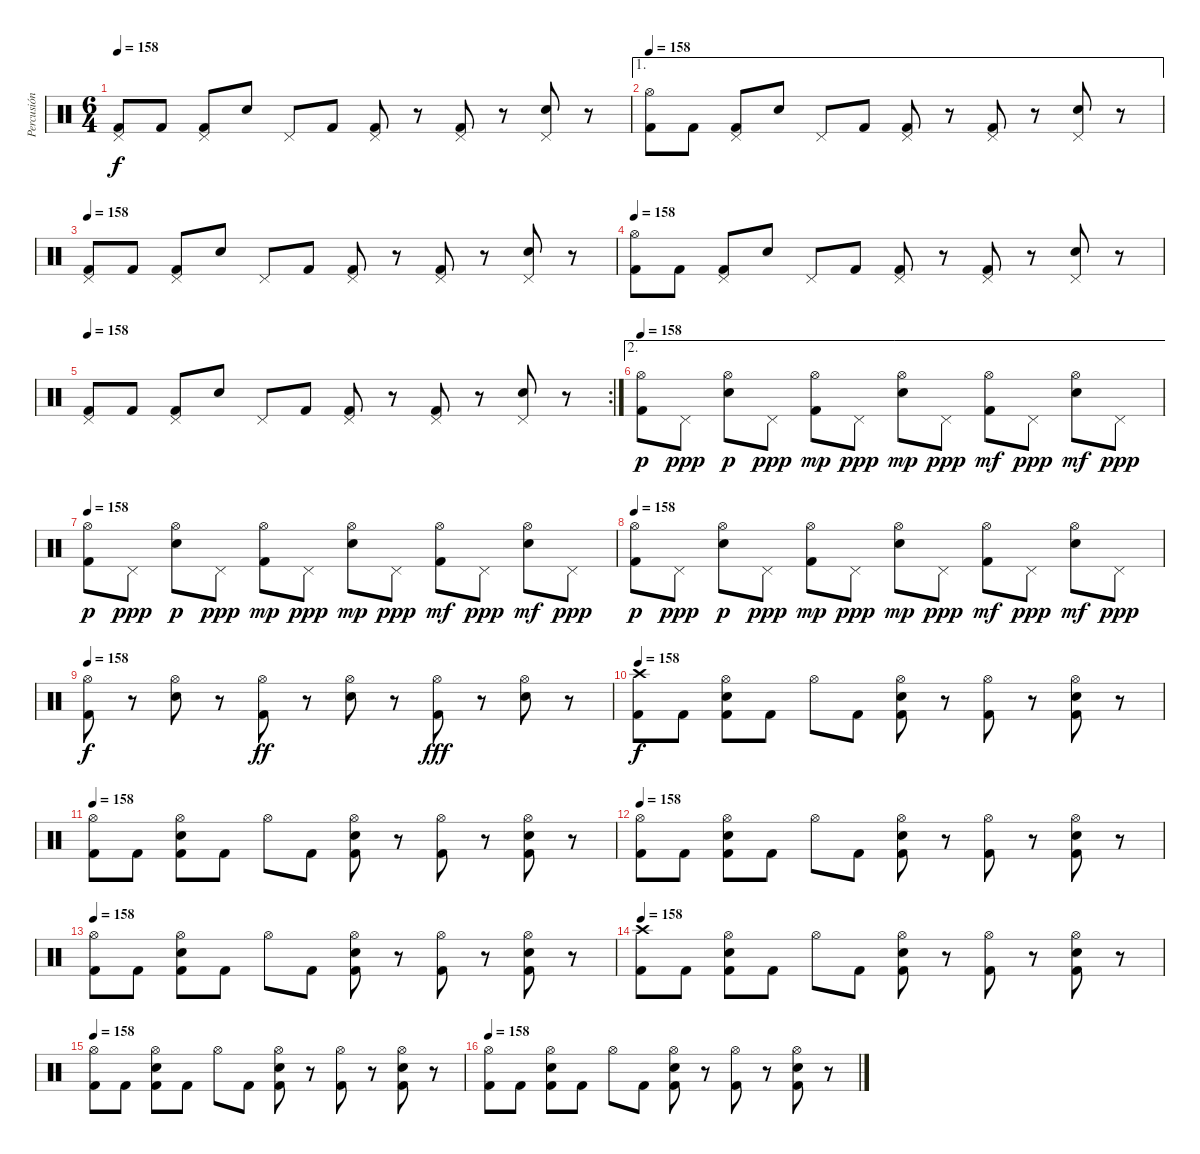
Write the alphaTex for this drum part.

\track ("Percusión" "Percusión") {instrument percussion}
\staff {score}
\articulation defaults
\ts (6 4)
\tempo 158
\clef neutral
\ks c
("Pedal Hi-Hat (hit)" "Kick (hit) 2").8{dy f} "Kick (hit) 2".8 ("Pedal Hi-Hat (hit)" "Kick (hit) 2").8 "Electric Snare (hit)".8 "Pedal Hi-Hat (hit)".8 "Kick (hit) 2".8 ("Pedal Hi-Hat (hit)" "Kick (hit) 2").8 r.8 ("Pedal Hi-Hat (hit)" "Kick (hit) 2").8 r.8 ("Pedal Hi-Hat (hit)" "Electric Snare (hit)").8 r.8 |
\ae 1
\tempo 158
("Hi-Hat (open)" "Kick (hit) 2").8 "Kick (hit) 2".8 ("Pedal Hi-Hat (hit)" "Kick (hit) 2").8 "Electric Snare (hit)".8 "Pedal Hi-Hat (hit)".8 "Kick (hit) 2".8 ("Pedal Hi-Hat (hit)" "Kick (hit) 2").8 r.8 ("Pedal Hi-Hat (hit)" "Kick (hit) 2").8 r.8 ("Pedal Hi-Hat (hit)" "Electric Snare (hit)").8 r.8 |
\tempo 158
("Pedal Hi-Hat (hit)" "Kick (hit) 2").8 "Kick (hit) 2".8 ("Pedal Hi-Hat (hit)" "Kick (hit) 2").8 "Electric Snare (hit)".8 "Pedal Hi-Hat (hit)".8 "Kick (hit) 2".8 ("Pedal Hi-Hat (hit)" "Kick (hit) 2").8 r.8 ("Pedal Hi-Hat (hit)" "Kick (hit) 2").8 r.8 ("Pedal Hi-Hat (hit)" "Electric Snare (hit)").8 r.8 |
\tempo 158
("Hi-Hat (open)" "Kick (hit) 2").8 "Kick (hit) 2".8 ("Pedal Hi-Hat (hit)" "Kick (hit) 2").8 "Electric Snare (hit)".8 "Pedal Hi-Hat (hit)".8 "Kick (hit) 2".8 ("Pedal Hi-Hat (hit)" "Kick (hit) 2").8 r.8 ("Pedal Hi-Hat (hit)" "Kick (hit) 2").8 r.8 ("Pedal Hi-Hat (hit)" "Electric Snare (hit)").8 r.8 |
\rc 2
\tempo 158
("Pedal Hi-Hat (hit)" "Kick (hit) 2").8 "Kick (hit) 2".8 ("Pedal Hi-Hat (hit)" "Kick (hit) 2").8 "Electric Snare (hit)".8 "Pedal Hi-Hat (hit)".8 "Kick (hit) 2".8 ("Pedal Hi-Hat (hit)" "Kick (hit) 2").8 r.8 ("Pedal Hi-Hat (hit)" "Kick (hit) 2").8 r.8 ("Pedal Hi-Hat (hit)" "Electric Snare (hit)").8 r.8 |
\ae 2
\tempo 158
("Hi-Hat (open)" "Kick (hit) 2").8{dy p} "Pedal Hi-Hat (hit)".8{dy ppp} ("Hi-Hat (open)" "Electric Snare (hit)").8{dy p} "Pedal Hi-Hat (hit)".8{dy ppp} ("Hi-Hat (open)" "Kick (hit) 2").8{dy mp} "Pedal Hi-Hat (hit)".8{dy ppp} ("Hi-Hat (open)" "Electric Snare (hit)").8{dy mp} "Pedal Hi-Hat (hit)".8{dy ppp} ("Hi-Hat (open)" "Kick (hit) 2").8{dy mf} "Pedal Hi-Hat (hit)".8{dy ppp} ("Hi-Hat (open)" "Electric Snare (hit)").8{dy mf} "Pedal Hi-Hat (hit)".8{dy ppp} |
\tempo 158
("Hi-Hat (open)" "Kick (hit) 2").8{dy p} "Pedal Hi-Hat (hit)".8{dy ppp} ("Hi-Hat (open)" "Electric Snare (hit)").8{dy p} "Pedal Hi-Hat (hit)".8{dy ppp} ("Hi-Hat (open)" "Kick (hit) 2").8{dy mp} "Pedal Hi-Hat (hit)".8{dy ppp} ("Hi-Hat (open)" "Electric Snare (hit)").8{dy mp} "Pedal Hi-Hat (hit)".8{dy ppp} ("Hi-Hat (open)" "Kick (hit) 2").8{dy mf} "Pedal Hi-Hat (hit)".8{dy ppp} ("Hi-Hat (open)" "Electric Snare (hit)").8{dy mf} "Pedal Hi-Hat (hit)".8{dy ppp} |
\tempo 158
("Hi-Hat (open)" "Kick (hit) 2").8{dy p} "Pedal Hi-Hat (hit)".8{dy ppp} ("Hi-Hat (open)" "Electric Snare (hit)").8{dy p} "Pedal Hi-Hat (hit)".8{dy ppp} ("Hi-Hat (open)" "Kick (hit) 2").8{dy mp} "Pedal Hi-Hat (hit)".8{dy ppp} ("Hi-Hat (open)" "Electric Snare (hit)").8{dy mp} "Pedal Hi-Hat (hit)".8{dy ppp} ("Hi-Hat (open)" "Kick (hit) 2").8{dy mf} "Pedal Hi-Hat (hit)".8{dy ppp} ("Hi-Hat (open)" "Electric Snare (hit)").8{dy mf} "Pedal Hi-Hat (hit)".8{dy ppp} |
\tempo 158
("Hi-Hat (open)" "Kick (hit) 2").8{dy f} r.8 ("Hi-Hat (open)" "Electric Snare (hit)").8 r.8 ("Hi-Hat (open)" "Kick (hit) 2").8{dy ff} r.8 ("Hi-Hat (open)" "Electric Snare (hit)").8 r.8 ("Hi-Hat (open)" "Kick (hit) 2").8{dy fff} r.8 ("Hi-Hat (open)" "Electric Snare (hit)").8 r.8 |
\tempo 158
("Crash high (hit)" "Kick (hit) 2").8{dy f} "Kick (hit) 2".8 ("Hi-Hat (open)" "Electric Snare (hit)" "Kick (hit) 2").8 "Kick (hit) 2".8 "Hi-Hat (open)".8 "Kick (hit) 2".8 ("Hi-Hat (open)" "Electric Snare (hit)" "Kick (hit) 2").8 r.8 ("Hi-Hat (open)" "Kick (hit) 2").8 r.8 ("Hi-Hat (open)" "Electric Snare (hit)" "Kick (hit) 2").8 r.8 |
\tempo 158
("Hi-Hat (open)" "Kick (hit) 2").8 "Kick (hit) 2".8 ("Hi-Hat (open)" "Electric Snare (hit)" "Kick (hit) 2").8 "Kick (hit) 2".8 "Hi-Hat (open)".8 "Kick (hit) 2".8 ("Hi-Hat (open)" "Electric Snare (hit)" "Kick (hit) 2").8 r.8 ("Hi-Hat (open)" "Kick (hit) 2").8 r.8 ("Hi-Hat (open)" "Electric Snare (hit)" "Kick (hit) 2").8 r.8 |
\tempo 158
("Hi-Hat (open)" "Kick (hit) 2").8 "Kick (hit) 2".8 ("Hi-Hat (open)" "Electric Snare (hit)" "Kick (hit) 2").8 "Kick (hit) 2".8 "Hi-Hat (open)".8 "Kick (hit) 2".8 ("Hi-Hat (open)" "Electric Snare (hit)" "Kick (hit) 2").8 r.8 ("Hi-Hat (open)" "Kick (hit) 2").8 r.8 ("Hi-Hat (open)" "Electric Snare (hit)" "Kick (hit) 2").8 r.8 |
\tempo 158
("Hi-Hat (open)" "Kick (hit) 2").8 "Kick (hit) 2".8 ("Hi-Hat (open)" "Electric Snare (hit)" "Kick (hit) 2").8 "Kick (hit) 2".8 "Hi-Hat (open)".8 "Kick (hit) 2".8 ("Hi-Hat (open)" "Electric Snare (hit)" "Kick (hit) 2").8 r.8 ("Hi-Hat (open)" "Kick (hit) 2").8 r.8 ("Hi-Hat (open)" "Electric Snare (hit)" "Kick (hit) 2").8 r.8 |
\tempo 158
("Crash high (hit)" "Kick (hit) 2").8 "Kick (hit) 2".8 ("Hi-Hat (open)" "Electric Snare (hit)" "Kick (hit) 2").8 "Kick (hit) 2".8 "Hi-Hat (open)".8 "Kick (hit) 2".8 ("Hi-Hat (open)" "Electric Snare (hit)" "Kick (hit) 2").8 r.8 ("Hi-Hat (open)" "Kick (hit) 2").8 r.8 ("Hi-Hat (open)" "Electric Snare (hit)" "Kick (hit) 2").8 r.8 |
\tempo 158
("Hi-Hat (open)" "Kick (hit) 2").8 "Kick (hit) 2".8 ("Hi-Hat (open)" "Electric Snare (hit)" "Kick (hit) 2").8 "Kick (hit) 2".8 "Hi-Hat (open)".8 "Kick (hit) 2".8 ("Hi-Hat (open)" "Electric Snare (hit)" "Kick (hit) 2").8 r.8 ("Hi-Hat (open)" "Kick (hit) 2").8 r.8 ("Hi-Hat (open)" "Electric Snare (hit)" "Kick (hit) 2").8 r.8 |
\tempo 158
("Hi-Hat (open)" "Kick (hit) 2").8 "Kick (hit) 2".8 ("Hi-Hat (open)" "Electric Snare (hit)" "Kick (hit) 2").8 "Kick (hit) 2".8 "Hi-Hat (open)".8 "Kick (hit) 2".8 ("Hi-Hat (open)" "Electric Snare (hit)" "Kick (hit) 2").8 r.8 ("Hi-Hat (open)" "Kick (hit) 2").8 r.8 ("Hi-Hat (open)" "Electric Snare (hit)" "Kick (hit) 2").8 r.8
